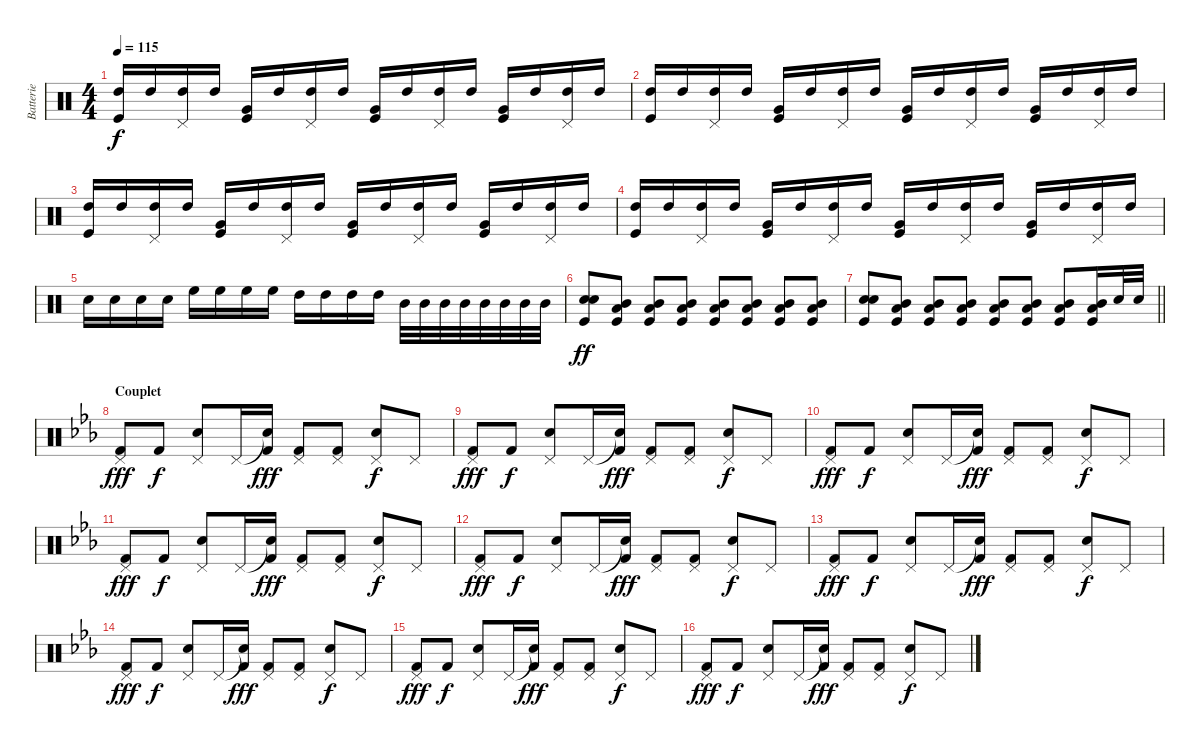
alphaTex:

\track ("Batterie" "Batterie") {instrument percussion}
\staff {score}
\articulation defaults
\ts (4 4)
\tempo 115
\clef neutral
\ks c
("High Tom (hit)" "Kick (hit)").16{dy f} "High Tom (hit)".16 ("High Tom (hit)" "Pedal Hi-Hat (hit)").16 "High Tom (hit)".16 ("Very Low Tom (hit)" "Kick (hit)").16 "High Tom (hit)".16 ("High Tom (hit)" "Pedal Hi-Hat (hit)").16 "High Tom (hit)".16 ("Very Low Tom (hit)" "Kick (hit)").16 "High Tom (hit)".16 ("High Tom (hit)" "Pedal Hi-Hat (hit)").16 "High Tom (hit)".16 ("Very Low Tom (hit)" "Kick (hit)").16 "High Tom (hit)".16 ("High Tom (hit)" "Pedal Hi-Hat (hit)").16 "High Tom (hit)".16 |
("High Tom (hit)" "Kick (hit)").16 "High Tom (hit)".16 ("High Tom (hit)" "Pedal Hi-Hat (hit)").16 "High Tom (hit)".16 ("Very Low Tom (hit)" "Kick (hit)").16 "High Tom (hit)".16 ("High Tom (hit)" "Pedal Hi-Hat (hit)").16 "High Tom (hit)".16 ("Very Low Tom (hit)" "Kick (hit)").16 "High Tom (hit)".16 ("High Tom (hit)" "Pedal Hi-Hat (hit)").16 "High Tom (hit)".16 ("Very Low Tom (hit)" "Kick (hit)").16 "High Tom (hit)".16 ("High Tom (hit)" "Pedal Hi-Hat (hit)").16 "High Tom (hit)".16 |
("High Tom (hit)" "Kick (hit)").16 "High Tom (hit)".16 ("High Tom (hit)" "Pedal Hi-Hat (hit)").16 "High Tom (hit)".16 ("Very Low Tom (hit)" "Kick (hit)").16 "High Tom (hit)".16 ("High Tom (hit)" "Pedal Hi-Hat (hit)").16 "High Tom (hit)".16 ("Very Low Tom (hit)" "Kick (hit)").16 "High Tom (hit)".16 ("High Tom (hit)" "Pedal Hi-Hat (hit)").16 "High Tom (hit)".16 ("Very Low Tom (hit)" "Kick (hit)").16 "High Tom (hit)".16 ("High Tom (hit)" "Pedal Hi-Hat (hit)").16 "High Tom (hit)".16 |
("High Tom (hit)" "Kick (hit)").16 "High Tom (hit)".16 ("High Tom (hit)" "Pedal Hi-Hat (hit)").16 "High Tom (hit)".16 ("Very Low Tom (hit)" "Kick (hit)").16 "High Tom (hit)".16 ("High Tom (hit)" "Pedal Hi-Hat (hit)").16 "High Tom (hit)".16 ("Very Low Tom (hit)" "Kick (hit)").16 "High Tom (hit)".16 ("High Tom (hit)" "Pedal Hi-Hat (hit)").16 "High Tom (hit)".16 ("Very Low Tom (hit)" "Kick (hit)").16 "High Tom (hit)".16 ("High Tom (hit)" "Pedal Hi-Hat (hit)").16 "High Tom (hit)".16 |
"Snare (hit) 2".16 "Snare (hit) 2".16 "Snare (hit) 2".16 "Snare (hit) 2".16 "High Floor Tom (hit)".16 "High Floor Tom (hit)".16 "High Floor Tom (hit)".16 "High Floor Tom (hit)".16 "High Tom (hit)".16 "High Tom (hit)".16 "High Tom (hit)".16 "High Tom (hit)".16 "Mid Tom (hit)".32 "Mid Tom (hit)".32 "Mid Tom (hit)".32 "Mid Tom (hit)".32 "Mid Tom (hit)".32 "Mid Tom (hit)".32 "Mid Tom (hit)".32 "Mid Tom (hit)".32 |
("Snare (hit) 2" "Snare (hit) 2" "Kick (hit)").8{dy ff} ("Mid Tom (hit)" "Low Tom (hit)" "Kick (hit)").8 ("Low Tom (hit)" "Mid Tom (hit)" "Kick (hit)").8 ("Mid Tom (hit)" "Low Tom (hit)" "Kick (hit)").8 ("Low Tom (hit)" "Mid Tom (hit)" "Kick (hit)").8 ("Mid Tom (hit)" "Low Tom (hit)" "Kick (hit)").8 ("Low Tom (hit)" "Mid Tom (hit)" "Kick (hit)").8 ("Low Tom (hit)" "Mid Tom (hit)" "Kick (hit)").8 |
\barLineRight lightlight
("Snare (hit) 2" "Snare (hit) 2" "Kick (hit)").8 ("Mid Tom (hit)" "Low Tom (hit)" "Kick (hit)").8 ("Low Tom (hit)" "Mid Tom (hit)" "Kick (hit)").8 ("Mid Tom (hit)" "Low Tom (hit)" "Kick (hit)").8 ("Low Tom (hit)" "Mid Tom (hit)" "Kick (hit)").8 ("Mid Tom (hit)" "Low Tom (hit)" "Kick (hit)").8 ("Low Tom (hit)" "Mid Tom (hit)" "Kick (hit)").8 ("Low Tom (hit)" "Mid Tom (hit)" "Kick (hit)").16 "Snare (hit) 2".32 "Snare (hit) 2".32{volume 10} |
\section ("" "Couplet")
\ks eb
("Pedal Hi-Hat (hit)" "Kick (hit) 2").8{dy fff} "Kick (hit) 2".8{dy f} ("Pedal Hi-Hat (hit)" "Snare (hit) 2").8 "Pedal Hi-Hat (hit)".16 ("Snare (hit)"{t} "Kick (hit) 2").16{dy fff} ("Pedal Hi-Hat (hit)" "Kick (hit) 2").8 ("Pedal Hi-Hat (hit)" "Kick (hit) 2").8 ("Pedal Hi-Hat (hit)" "Snare (hit) 2").8{dy f} "Pedal Hi-Hat (hit)".8 |
("Pedal Hi-Hat (hit)" "Kick (hit) 2").8{dy fff} "Kick (hit) 2".8{dy f} ("Pedal Hi-Hat (hit)" "Snare (hit) 2").8 "Pedal Hi-Hat (hit)".16 ("Snare (hit)"{t} "Kick (hit) 2").16{dy fff} ("Pedal Hi-Hat (hit)" "Kick (hit) 2").8 ("Pedal Hi-Hat (hit)" "Kick (hit) 2").8 ("Pedal Hi-Hat (hit)" "Snare (hit) 2").8{dy f} "Pedal Hi-Hat (hit)".8 |
("Pedal Hi-Hat (hit)" "Kick (hit) 2").8{dy fff} "Kick (hit) 2".8{dy f} ("Pedal Hi-Hat (hit)" "Snare (hit) 2").8 "Pedal Hi-Hat (hit)".16 ("Snare (hit)"{t} "Kick (hit) 2").16{dy fff} ("Pedal Hi-Hat (hit)" "Kick (hit) 2").8 ("Pedal Hi-Hat (hit)" "Kick (hit) 2").8 ("Pedal Hi-Hat (hit)" "Snare (hit) 2").8{dy f} "Pedal Hi-Hat (hit)".8 |
("Pedal Hi-Hat (hit)" "Kick (hit) 2").8{dy fff} "Kick (hit) 2".8{dy f} ("Pedal Hi-Hat (hit)" "Snare (hit) 2").8 "Pedal Hi-Hat (hit)".16 ("Snare (hit)"{t} "Kick (hit) 2").16{dy fff} ("Pedal Hi-Hat (hit)" "Kick (hit) 2").8 ("Pedal Hi-Hat (hit)" "Kick (hit) 2").8 ("Pedal Hi-Hat (hit)" "Snare (hit) 2").8{dy f} "Pedal Hi-Hat (hit)".8 |
("Pedal Hi-Hat (hit)" "Kick (hit) 2").8{dy fff} "Kick (hit) 2".8{dy f} ("Pedal Hi-Hat (hit)" "Snare (hit) 2").8 "Pedal Hi-Hat (hit)".16 ("Snare (hit)"{t} "Kick (hit) 2").16{dy fff} ("Pedal Hi-Hat (hit)" "Kick (hit) 2").8 ("Pedal Hi-Hat (hit)" "Kick (hit) 2").8 ("Pedal Hi-Hat (hit)" "Snare (hit) 2").8{dy f} "Pedal Hi-Hat (hit)".8 |
("Pedal Hi-Hat (hit)" "Kick (hit) 2").8{dy fff} "Kick (hit) 2".8{dy f} ("Pedal Hi-Hat (hit)" "Snare (hit) 2").8 "Pedal Hi-Hat (hit)".16 ("Snare (hit)"{t} "Kick (hit) 2").16{dy fff} ("Pedal Hi-Hat (hit)" "Kick (hit) 2").8 ("Pedal Hi-Hat (hit)" "Kick (hit) 2").8 ("Pedal Hi-Hat (hit)" "Snare (hit) 2").8{dy f} "Pedal Hi-Hat (hit)".8 |
("Pedal Hi-Hat (hit)" "Kick (hit) 2").8{dy fff} "Kick (hit) 2".8{dy f} ("Pedal Hi-Hat (hit)" "Snare (hit) 2").8 "Pedal Hi-Hat (hit)".16 ("Snare (hit)"{t} "Kick (hit) 2").16{dy fff} ("Pedal Hi-Hat (hit)" "Kick (hit) 2").8 ("Pedal Hi-Hat (hit)" "Kick (hit) 2").8 ("Pedal Hi-Hat (hit)" "Snare (hit) 2").8{dy f} "Pedal Hi-Hat (hit)".8 |
("Pedal Hi-Hat (hit)" "Kick (hit) 2").8{dy fff} "Kick (hit) 2".8{dy f} ("Pedal Hi-Hat (hit)" "Snare (hit) 2").8 "Pedal Hi-Hat (hit)".16 ("Snare (hit)"{t} "Kick (hit) 2").16{dy fff} ("Pedal Hi-Hat (hit)" "Kick (hit) 2").8 ("Pedal Hi-Hat (hit)" "Kick (hit) 2").8 ("Pedal Hi-Hat (hit)" "Snare (hit) 2").8{dy f} "Pedal Hi-Hat (hit)".8 |
("Pedal Hi-Hat (hit)" "Kick (hit) 2").8{dy fff} "Kick (hit) 2".8{dy f} ("Pedal Hi-Hat (hit)" "Snare (hit) 2").8 "Pedal Hi-Hat (hit)".16 ("Snare (hit)"{t} "Kick (hit) 2").16{dy fff} ("Pedal Hi-Hat (hit)" "Kick (hit) 2").8 ("Pedal Hi-Hat (hit)" "Kick (hit) 2").8 ("Pedal Hi-Hat (hit)" "Snare (hit) 2").8{dy f} "Pedal Hi-Hat (hit)".8
